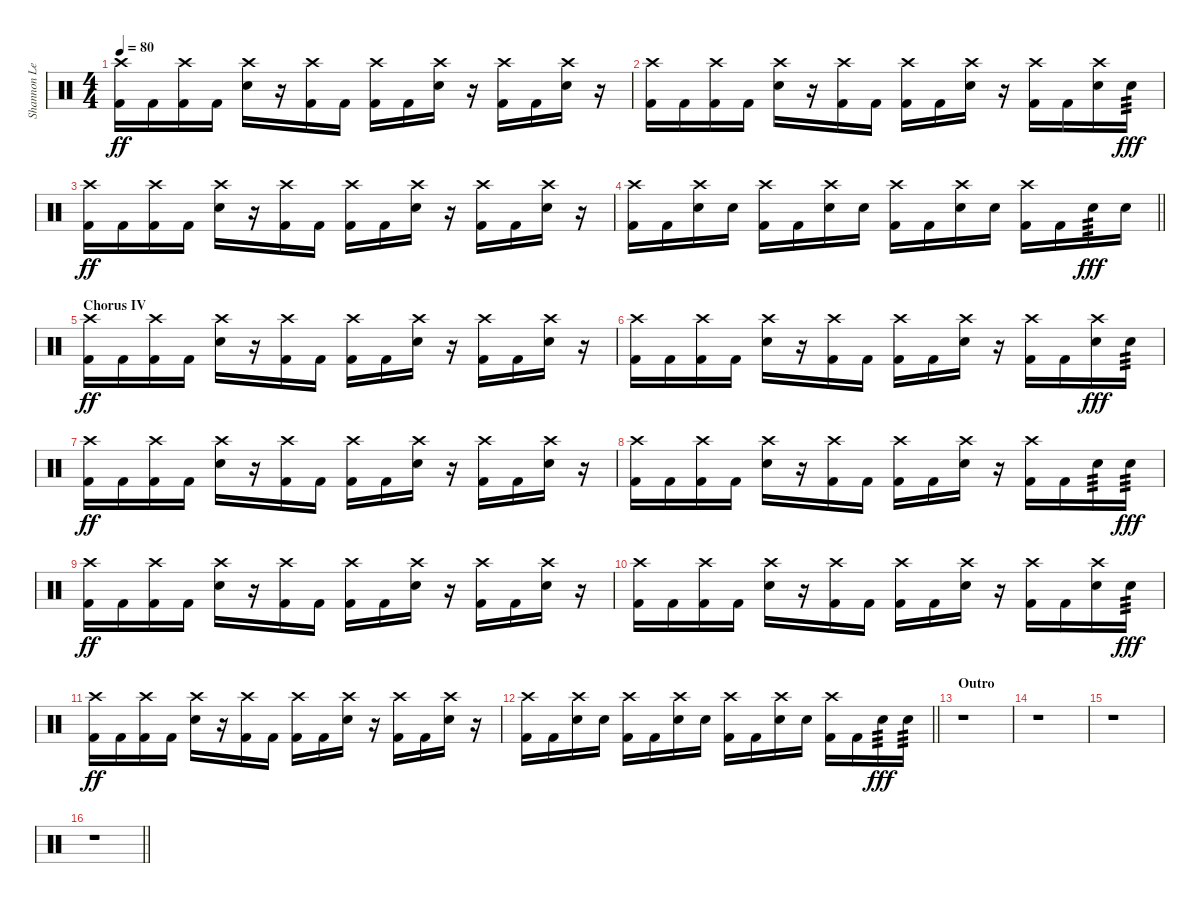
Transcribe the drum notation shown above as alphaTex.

\track ("Shannon Leto (Drums)" "Shannon Le") {instrument percussion}
\staff {score}
\articulation defaults
\ts (4 4)
\tempo 80
\clef neutral
\ks c
("Crash high (hit)" "Kick (hit) 2").16{dy ff} "Kick (hit) 2".16 ("Crash high (hit)" "Kick (hit) 2").16 "Kick (hit) 2".16 ("Crash high (hit)" "Snare (hit) 2").16 r.16 ("Crash high (hit)" "Kick (hit) 2").16 "Kick (hit) 2".16 ("Crash high (hit)" "Kick (hit) 2").16 "Kick (hit) 2".16 ("Crash high (hit)" "Snare (hit) 2").16 r.16 ("Crash high (hit)" "Kick (hit) 2").16 "Kick (hit) 2".16 ("Crash high (hit)" "Snare (hit) 2").16 r.16 |
("Crash high (hit)" "Kick (hit) 2").16 "Kick (hit) 2".16 ("Crash high (hit)" "Kick (hit) 2").16 "Kick (hit) 2".16 ("Crash high (hit)" "Snare (hit) 2").16 r.16 ("Crash high (hit)" "Kick (hit) 2").16 "Kick (hit) 2".16 ("Crash high (hit)" "Kick (hit) 2").16 "Kick (hit) 2".16 ("Crash high (hit)" "Snare (hit) 2").16 r.16 ("Crash high (hit)" "Kick (hit) 2").16 "Kick (hit) 2".16 ("Crash high (hit)" "Snare (hit) 2").16 "Snare (hit) 2".16{tp 3 dy fff} |
("Crash high (hit)" "Kick (hit) 2").16{dy ff} "Kick (hit) 2".16 ("Crash high (hit)" "Kick (hit) 2").16 "Kick (hit) 2".16 ("Crash high (hit)" "Snare (hit) 2").16 r.16 ("Crash high (hit)" "Kick (hit) 2").16 "Kick (hit) 2".16 ("Crash high (hit)" "Kick (hit) 2").16 "Kick (hit) 2".16 ("Crash high (hit)" "Snare (hit) 2").16 r.16 ("Crash high (hit)" "Kick (hit) 2").16 "Kick (hit) 2".16 ("Crash high (hit)" "Snare (hit) 2").16 r.16 |
\barLineRight lightlight
("Crash high (hit)" "Kick (hit) 2").16 "Kick (hit) 2".16 ("Crash high (hit)" "Snare (hit) 2").16 "Snare (hit) 2".16 ("Crash high (hit)" "Kick (hit) 2").16 "Kick (hit) 2".16 ("Crash high (hit)" "Snare (hit) 2").16 "Snare (hit) 2".16 ("Crash high (hit)" "Kick (hit) 2").16 "Kick (hit) 2".16 ("Crash high (hit)" "Snare (hit) 2").16 "Snare (hit) 2".16 ("Crash high (hit)" "Kick (hit) 2").16 "Kick (hit) 2".16 "Snare (hit) 2".16{tp 3 dy fff} "Snare (hit) 2".16 |
\section ("" "Chorus IV")
("Crash high (hit)" "Kick (hit) 2").16{dy ff} "Kick (hit) 2".16 ("Crash high (hit)" "Kick (hit) 2").16 "Kick (hit) 2".16 ("Crash high (hit)" "Snare (hit) 2").16 r.16 ("Crash high (hit)" "Kick (hit) 2").16 "Kick (hit) 2".16 ("Crash high (hit)" "Kick (hit) 2").16 "Kick (hit) 2".16 ("Crash high (hit)" "Snare (hit) 2").16 r.16 ("Crash high (hit)" "Kick (hit) 2").16 "Kick (hit) 2".16 ("Crash high (hit)" "Snare (hit) 2").16 r.16 |
("Crash high (hit)" "Kick (hit) 2").16 "Kick (hit) 2".16 ("Crash high (hit)" "Kick (hit) 2").16 "Kick (hit) 2".16 ("Crash high (hit)" "Snare (hit) 2").16 r.16 ("Crash high (hit)" "Kick (hit) 2").16 "Kick (hit) 2".16 ("Crash high (hit)" "Kick (hit) 2").16 "Kick (hit) 2".16 ("Crash high (hit)" "Snare (hit) 2").16 r.16 ("Crash high (hit)" "Kick (hit) 2").16 "Kick (hit) 2".16 ("Crash high (hit)" "Snare (hit) 2").16{dy fff} "Snare (hit) 2".16{tp 3} |
("Crash high (hit)" "Kick (hit) 2").16{dy ff} "Kick (hit) 2".16 ("Crash high (hit)" "Kick (hit) 2").16 "Kick (hit) 2".16 ("Crash high (hit)" "Snare (hit) 2").16 r.16 ("Crash high (hit)" "Kick (hit) 2").16 "Kick (hit) 2".16 ("Crash high (hit)" "Kick (hit) 2").16 "Kick (hit) 2".16 ("Crash high (hit)" "Snare (hit) 2").16 r.16 ("Crash high (hit)" "Kick (hit) 2").16 "Kick (hit) 2".16 ("Crash high (hit)" "Snare (hit) 2").16 r.16 |
("Crash high (hit)" "Kick (hit) 2").16 "Kick (hit) 2".16 ("Crash high (hit)" "Kick (hit) 2").16 "Kick (hit) 2".16 ("Crash high (hit)" "Snare (hit) 2").16 r.16 ("Crash high (hit)" "Kick (hit) 2").16 "Kick (hit) 2".16 ("Crash high (hit)" "Kick (hit) 2").16 "Kick (hit) 2".16 ("Crash high (hit)" "Snare (hit) 2").16 r.16 ("Crash high (hit)" "Kick (hit) 2").16 "Kick (hit) 2".16 "Snare (hit) 2".16{tp 3} "Snare (hit) 2".16{tp 3 dy fff} |
("Crash high (hit)" "Kick (hit) 2").16{dy ff} "Kick (hit) 2".16 ("Crash high (hit)" "Kick (hit) 2").16 "Kick (hit) 2".16 ("Crash high (hit)" "Snare (hit) 2").16 r.16 ("Crash high (hit)" "Kick (hit) 2").16 "Kick (hit) 2".16 ("Crash high (hit)" "Kick (hit) 2").16 "Kick (hit) 2".16 ("Crash high (hit)" "Snare (hit) 2").16 r.16 ("Crash high (hit)" "Kick (hit) 2").16 "Kick (hit) 2".16 ("Crash high (hit)" "Snare (hit) 2").16 r.16 |
("Crash high (hit)" "Kick (hit) 2").16 "Kick (hit) 2".16 ("Crash high (hit)" "Kick (hit) 2").16 "Kick (hit) 2".16 ("Crash high (hit)" "Snare (hit) 2").16 r.16 ("Crash high (hit)" "Kick (hit) 2").16 "Kick (hit) 2".16 ("Crash high (hit)" "Kick (hit) 2").16 "Kick (hit) 2".16 ("Crash high (hit)" "Snare (hit) 2").16 r.16 ("Crash high (hit)" "Kick (hit) 2").16 "Kick (hit) 2".16 ("Crash high (hit)" "Snare (hit) 2").16 "Snare (hit) 2".16{tp 3 dy fff} |
("Crash high (hit)" "Kick (hit) 2").16{dy ff} "Kick (hit) 2".16 ("Crash high (hit)" "Kick (hit) 2").16 "Kick (hit) 2".16 ("Crash high (hit)" "Snare (hit) 2").16 r.16 ("Crash high (hit)" "Kick (hit) 2").16 "Kick (hit) 2".16 ("Crash high (hit)" "Kick (hit) 2").16 "Kick (hit) 2".16 ("Crash high (hit)" "Snare (hit) 2").16 r.16 ("Crash high (hit)" "Kick (hit) 2").16 "Kick (hit) 2".16 ("Crash high (hit)" "Snare (hit) 2").16 r.16 |
\barLineRight lightlight
("Crash high (hit)" "Kick (hit) 2").16 "Kick (hit) 2".16 ("Crash high (hit)" "Snare (hit) 2").16 "Snare (hit) 2".16 ("Crash high (hit)" "Kick (hit) 2").16 "Kick (hit) 2".16 ("Crash high (hit)" "Snare (hit) 2").16 "Snare (hit) 2".16 ("Crash high (hit)" "Kick (hit) 2").16 "Kick (hit) 2".16 ("Crash high (hit)" "Snare (hit) 2").16 "Snare (hit) 2".16 ("Crash high (hit)" "Kick (hit) 2").16 "Kick (hit) 2".16 "Snare (hit) 2".16{tp 3 dy fff} "Snare (hit) 2".16{tp 3} |
\section ("" "Outro")
r.1 |
r.1 |
r.1 |
\barLineRight lightlight
r.1
